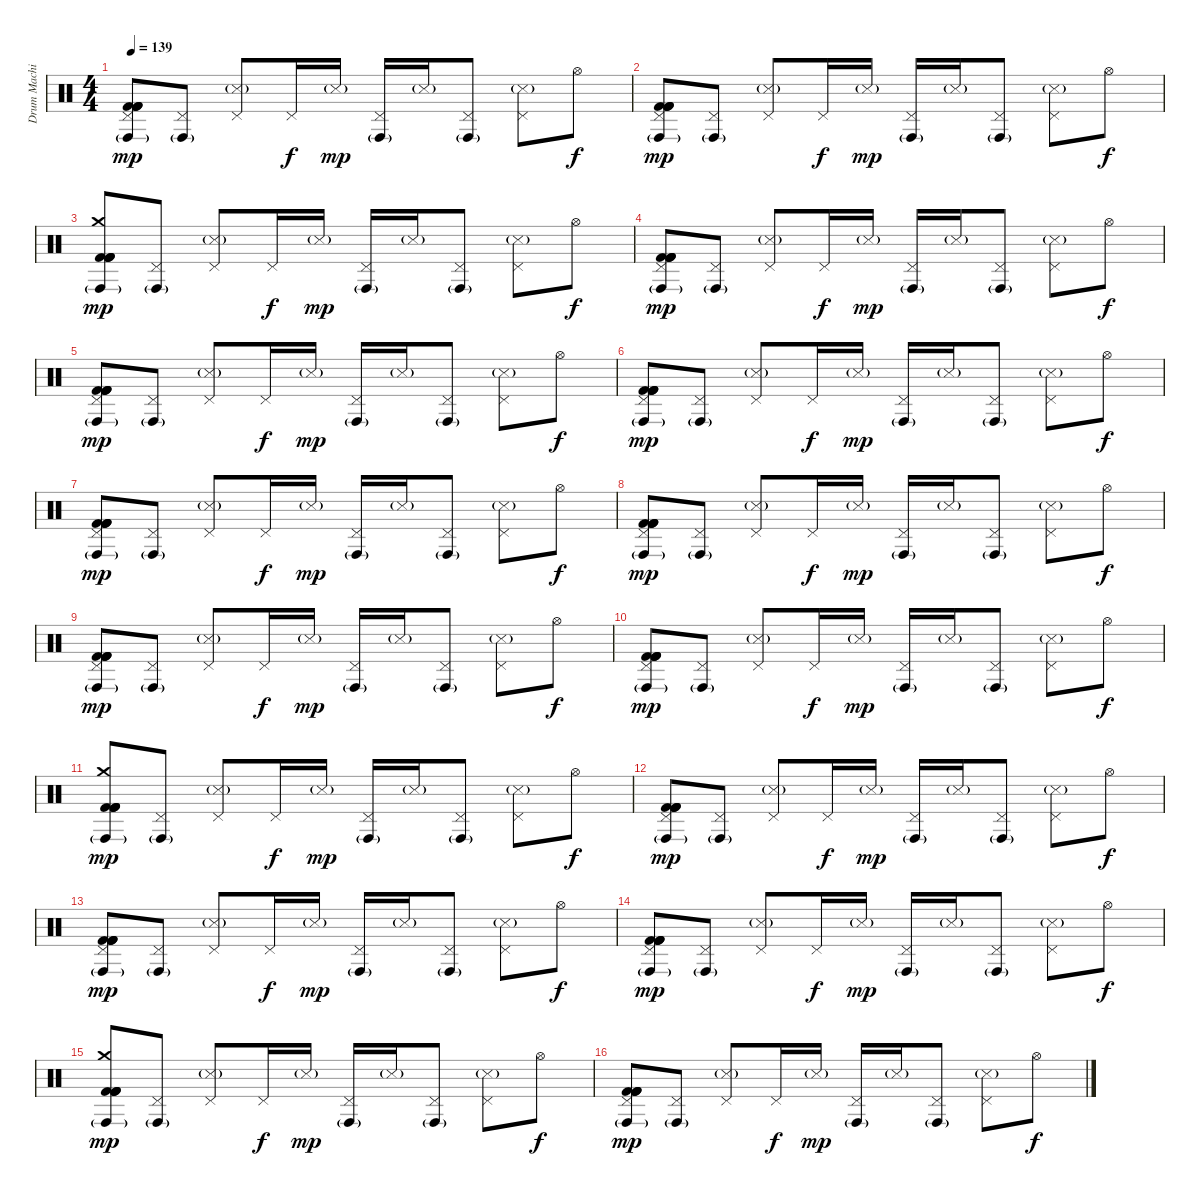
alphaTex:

\track ("Drum Machine" "Drum Machi") {instrument percussion}
\staff {score}
\articulation defaults
\ts (4 4)
\tempo 139
\clef neutral
\ks c
("Conga high (hit)"{g} "Pedal Hi-Hat (hit)" "Kick (hit) 2" "Kick (hit) 2" "Kick (hit) 2" "Kick (hit) 2").8{dy mp} ("Conga high (hit)"{g} "Pedal Hi-Hat (hit)").8 ("Snare (side stick) 3"{g} "Pedal Hi-Hat (hit)").8 "Pedal Hi-Hat (hit)".16{dy f} "Snare (side stick) 3"{g}.16{dy mp} ("Conga high (hit)"{g} "Pedal Hi-Hat (hit)").16 "Snare (side stick) 3"{g}.16 ("Conga high (hit)"{g} "Pedal Hi-Hat (hit)").8 ("Snare (side stick) 3"{g} "Pedal Hi-Hat (hit)").8 "Hi-Hat (open)".8{dy f} |
("Conga high (hit)"{g} "Pedal Hi-Hat (hit)" "Kick (hit) 2" "Kick (hit) 2" "Kick (hit) 2" "Kick (hit) 2").8{dy mp} ("Conga high (hit)"{g} "Pedal Hi-Hat (hit)").8 ("Snare (side stick) 3"{g} "Pedal Hi-Hat (hit)").8 "Pedal Hi-Hat (hit)".16{dy f} "Snare (side stick) 3"{g}.16{dy mp} ("Conga high (hit)"{g} "Pedal Hi-Hat (hit)").16 "Snare (side stick) 3"{g}.16 ("Conga high (hit)"{g} "Pedal Hi-Hat (hit)").8 ("Snare (side stick) 3"{g} "Pedal Hi-Hat (hit)").8 "Hi-Hat (open)".8{dy f} |
("Conga high (hit)"{g} "Crash medium (hit)" "Kick (hit) 2" "Kick (hit) 2" "Kick (hit) 2" "Kick (hit) 2").8{dy mp} ("Conga high (hit)"{g} "Pedal Hi-Hat (hit)").8 ("Snare (side stick) 3"{g} "Pedal Hi-Hat (hit)").8 "Pedal Hi-Hat (hit)".16{dy f} "Snare (side stick) 3"{g}.16{dy mp} ("Conga high (hit)"{g} "Pedal Hi-Hat (hit)").16 "Snare (side stick) 3"{g}.16 ("Conga high (hit)"{g} "Pedal Hi-Hat (hit)").8 ("Snare (side stick) 3"{g} "Pedal Hi-Hat (hit)").8 "Hi-Hat (open)".8{dy f} |
("Conga high (hit)"{g} "Pedal Hi-Hat (hit)" "Kick (hit) 2" "Kick (hit) 2" "Kick (hit) 2" "Kick (hit) 2").8{dy mp} ("Conga high (hit)"{g} "Pedal Hi-Hat (hit)").8 ("Snare (side stick) 3"{g} "Pedal Hi-Hat (hit)").8 "Pedal Hi-Hat (hit)".16{dy f} "Snare (side stick) 3"{g}.16{dy mp} ("Conga high (hit)"{g} "Pedal Hi-Hat (hit)").16 "Snare (side stick) 3"{g}.16 ("Conga high (hit)"{g} "Pedal Hi-Hat (hit)").8 ("Snare (side stick) 3"{g} "Pedal Hi-Hat (hit)").8 "Hi-Hat (open)".8{dy f} |
("Conga high (hit)"{g} "Pedal Hi-Hat (hit)" "Kick (hit) 2" "Kick (hit) 2" "Kick (hit) 2" "Kick (hit) 2").8{dy mp} ("Conga high (hit)"{g} "Pedal Hi-Hat (hit)").8 ("Snare (side stick) 3"{g} "Pedal Hi-Hat (hit)").8 "Pedal Hi-Hat (hit)".16{dy f} "Snare (side stick) 3"{g}.16{dy mp} ("Conga high (hit)"{g} "Pedal Hi-Hat (hit)").16 "Snare (side stick) 3"{g}.16 ("Conga high (hit)"{g} "Pedal Hi-Hat (hit)").8 ("Snare (side stick) 3"{g} "Pedal Hi-Hat (hit)").8 "Hi-Hat (open)".8{dy f} |
("Conga high (hit)"{g} "Pedal Hi-Hat (hit)" "Kick (hit) 2" "Kick (hit) 2" "Kick (hit) 2" "Kick (hit) 2").8{dy mp} ("Conga high (hit)"{g} "Pedal Hi-Hat (hit)").8 ("Snare (side stick) 3"{g} "Pedal Hi-Hat (hit)").8 "Pedal Hi-Hat (hit)".16{dy f} "Snare (side stick) 3"{g}.16{dy mp} ("Conga high (hit)"{g} "Pedal Hi-Hat (hit)").16 "Snare (side stick) 3"{g}.16 ("Conga high (hit)"{g} "Pedal Hi-Hat (hit)").8 ("Snare (side stick) 3"{g} "Pedal Hi-Hat (hit)").8 "Hi-Hat (open)".8{dy f} |
("Conga high (hit)"{g} "Pedal Hi-Hat (hit)" "Kick (hit) 2" "Kick (hit) 2" "Kick (hit) 2" "Kick (hit) 2").8{dy mp} ("Conga high (hit)"{g} "Pedal Hi-Hat (hit)").8 ("Snare (side stick) 3"{g} "Pedal Hi-Hat (hit)").8 "Pedal Hi-Hat (hit)".16{dy f} "Snare (side stick) 3"{g}.16{dy mp} ("Conga high (hit)"{g} "Pedal Hi-Hat (hit)").16 "Snare (side stick) 3"{g}.16 ("Conga high (hit)"{g} "Pedal Hi-Hat (hit)").8 ("Snare (side stick) 3"{g} "Pedal Hi-Hat (hit)").8 "Hi-Hat (open)".8{dy f} |
("Conga high (hit)"{g} "Pedal Hi-Hat (hit)" "Kick (hit) 2" "Kick (hit) 2" "Kick (hit) 2" "Kick (hit) 2").8{dy mp} ("Conga high (hit)"{g} "Pedal Hi-Hat (hit)").8 ("Snare (side stick) 3"{g} "Pedal Hi-Hat (hit)").8 "Pedal Hi-Hat (hit)".16{dy f} "Snare (side stick) 3"{g}.16{dy mp} ("Conga high (hit)"{g} "Pedal Hi-Hat (hit)").16 "Snare (side stick) 3"{g}.16 ("Conga high (hit)"{g} "Pedal Hi-Hat (hit)").8 ("Snare (side stick) 3"{g} "Pedal Hi-Hat (hit)").8 "Hi-Hat (open)".8{dy f} |
("Conga high (hit)"{g} "Pedal Hi-Hat (hit)" "Kick (hit) 2" "Kick (hit) 2" "Kick (hit) 2" "Kick (hit) 2").8{dy mp} ("Conga high (hit)"{g} "Pedal Hi-Hat (hit)").8 ("Snare (side stick) 3"{g} "Pedal Hi-Hat (hit)").8 "Pedal Hi-Hat (hit)".16{dy f} "Snare (side stick) 3"{g}.16{dy mp} ("Conga high (hit)"{g} "Pedal Hi-Hat (hit)").16 "Snare (side stick) 3"{g}.16 ("Conga high (hit)"{g} "Pedal Hi-Hat (hit)").8 ("Snare (side stick) 3"{g} "Pedal Hi-Hat (hit)").8 "Hi-Hat (open)".8{dy f} |
("Conga high (hit)"{g} "Pedal Hi-Hat (hit)" "Kick (hit) 2" "Kick (hit) 2" "Kick (hit) 2" "Kick (hit) 2").8{dy mp} ("Conga high (hit)"{g} "Pedal Hi-Hat (hit)").8 ("Snare (side stick) 3"{g} "Pedal Hi-Hat (hit)").8 "Pedal Hi-Hat (hit)".16{dy f} "Snare (side stick) 3"{g}.16{dy mp} ("Conga high (hit)"{g} "Pedal Hi-Hat (hit)").16 "Snare (side stick) 3"{g}.16 ("Conga high (hit)"{g} "Pedal Hi-Hat (hit)").8 ("Snare (side stick) 3"{g} "Pedal Hi-Hat (hit)").8 "Hi-Hat (open)".8{dy f} |
("Conga high (hit)"{g} "Crash medium (hit)" "Kick (hit) 2" "Kick (hit) 2" "Kick (hit) 2" "Kick (hit) 2").8{dy mp} ("Conga high (hit)"{g} "Pedal Hi-Hat (hit)").8 ("Snare (side stick) 3"{g} "Pedal Hi-Hat (hit)").8 "Pedal Hi-Hat (hit)".16{dy f} "Snare (side stick) 3"{g}.16{dy mp} ("Conga high (hit)"{g} "Pedal Hi-Hat (hit)").16 "Snare (side stick) 3"{g}.16 ("Conga high (hit)"{g} "Pedal Hi-Hat (hit)").8 ("Snare (side stick) 3"{g} "Pedal Hi-Hat (hit)").8 "Hi-Hat (open)".8{dy f} |
("Conga high (hit)"{g} "Pedal Hi-Hat (hit)" "Kick (hit) 2" "Kick (hit) 2" "Kick (hit) 2" "Kick (hit) 2").8{dy mp} ("Conga high (hit)"{g} "Pedal Hi-Hat (hit)").8 ("Snare (side stick) 3"{g} "Pedal Hi-Hat (hit)").8 "Pedal Hi-Hat (hit)".16{dy f} "Snare (side stick) 3"{g}.16{dy mp} ("Conga high (hit)"{g} "Pedal Hi-Hat (hit)").16 "Snare (side stick) 3"{g}.16 ("Conga high (hit)"{g} "Pedal Hi-Hat (hit)").8 ("Snare (side stick) 3"{g} "Pedal Hi-Hat (hit)").8 "Hi-Hat (open)".8{dy f} |
("Conga high (hit)"{g} "Pedal Hi-Hat (hit)" "Kick (hit) 2" "Kick (hit) 2" "Kick (hit) 2" "Kick (hit) 2").8{dy mp} ("Conga high (hit)"{g} "Pedal Hi-Hat (hit)").8 ("Snare (side stick) 3"{g} "Pedal Hi-Hat (hit)").8 "Pedal Hi-Hat (hit)".16{dy f} "Snare (side stick) 3"{g}.16{dy mp} ("Conga high (hit)"{g} "Pedal Hi-Hat (hit)").16 "Snare (side stick) 3"{g}.16 ("Conga high (hit)"{g} "Pedal Hi-Hat (hit)").8 ("Snare (side stick) 3"{g} "Pedal Hi-Hat (hit)").8 "Hi-Hat (open)".8{dy f} |
("Conga high (hit)"{g} "Pedal Hi-Hat (hit)" "Kick (hit) 2" "Kick (hit) 2" "Kick (hit) 2" "Kick (hit) 2").8{dy mp} ("Conga high (hit)"{g} "Pedal Hi-Hat (hit)").8 ("Snare (side stick) 3"{g} "Pedal Hi-Hat (hit)").8 "Pedal Hi-Hat (hit)".16{dy f} "Snare (side stick) 3"{g}.16{dy mp} ("Conga high (hit)"{g} "Pedal Hi-Hat (hit)").16 "Snare (side stick) 3"{g}.16 ("Conga high (hit)"{g} "Pedal Hi-Hat (hit)").8 ("Snare (side stick) 3"{g} "Pedal Hi-Hat (hit)").8 "Hi-Hat (open)".8{dy f} |
("Conga high (hit)"{g} "Crash medium (hit)" "Kick (hit) 2" "Kick (hit) 2" "Kick (hit) 2" "Kick (hit) 2").8{dy mp} ("Conga high (hit)"{g} "Pedal Hi-Hat (hit)").8 ("Snare (side stick) 3"{g} "Pedal Hi-Hat (hit)").8 "Pedal Hi-Hat (hit)".16{dy f} "Snare (side stick) 3"{g}.16{dy mp} ("Conga high (hit)"{g} "Pedal Hi-Hat (hit)").16 "Snare (side stick) 3"{g}.16 ("Conga high (hit)"{g} "Pedal Hi-Hat (hit)").8 ("Snare (side stick) 3"{g} "Pedal Hi-Hat (hit)").8 "Hi-Hat (open)".8{dy f} |
("Conga high (hit)"{g} "Pedal Hi-Hat (hit)" "Kick (hit) 2" "Kick (hit) 2" "Kick (hit) 2" "Kick (hit) 2").8{dy mp} ("Conga high (hit)"{g} "Pedal Hi-Hat (hit)").8 ("Snare (side stick) 3"{g} "Pedal Hi-Hat (hit)").8 "Pedal Hi-Hat (hit)".16{dy f} "Snare (side stick) 3"{g}.16{dy mp} ("Conga high (hit)"{g} "Pedal Hi-Hat (hit)").16 "Snare (side stick) 3"{g}.16 ("Conga high (hit)"{g} "Pedal Hi-Hat (hit)").8 ("Snare (side stick) 3"{g} "Pedal Hi-Hat (hit)").8 "Hi-Hat (open)".8{dy f}
